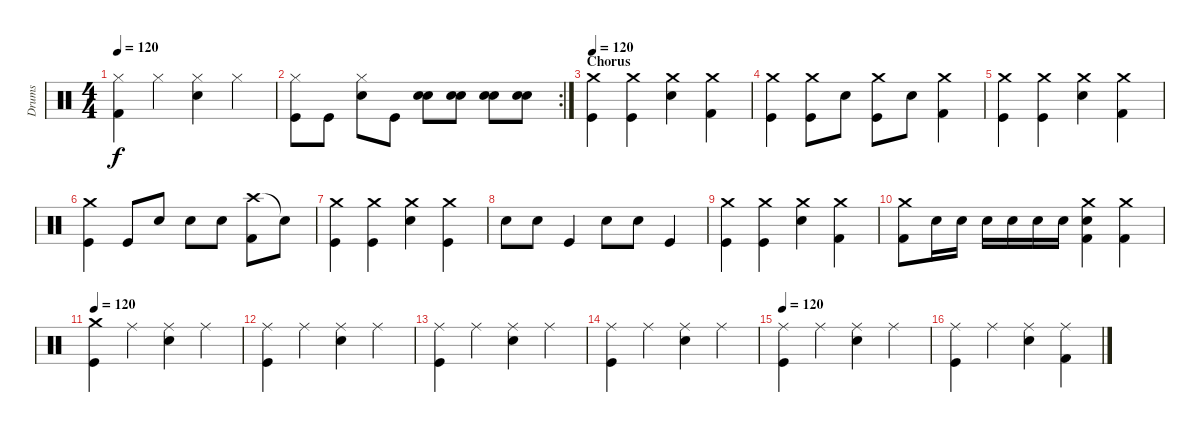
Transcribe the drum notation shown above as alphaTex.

\track ("Drums" "Drums") {instrument percussion}
\staff {score}
\articulation defaults
\ts (4 4)
\tempo 120
\clef neutral
\ks c
("Hi-Hat (closed)" "Kick (hit) 2").4{dy f} "Hi-Hat (closed)".4 ("Hi-Hat (closed)" "Electric Snare (hit)").4 "Hi-Hat (closed)".4 |
\rc 2
("Hi-Hat (closed)" "Kick (hit)").8 "Kick (hit)".8 ("Hi-Hat (closed)" "Electric Snare (hit)").8 "Kick (hit)".8 ("Electric Snare (hit)" "Electric Snare (hit)").8 ("Electric Snare (hit)" "Electric Snare (hit)").8 ("Electric Snare (hit)" "Electric Snare (hit)").8 ("Electric Snare (hit)" "Electric Snare (hit)").8 |
\section ("" "Chorus")
\tempo 120
("Crash medium (hit)" "Kick (hit)").4 ("Crash medium (hit)" "Kick (hit)").4 ("Crash medium (hit)" "Electric Snare (hit)").4 ("Crash medium (hit)" "Kick (hit) 2").4 |
("Crash medium (hit)" "Kick (hit)").4 ("Crash medium (hit)" "Kick (hit)").8 "Electric Snare (hit)".8 ("Crash medium (hit)" "Kick (hit)").8 "Electric Snare (hit)".8 ("Crash medium (hit)" "Kick (hit) 2").4 |
("Crash medium (hit)" "Kick (hit)").4 ("Crash medium (hit)" "Kick (hit)").4 ("Crash medium (hit)" "Electric Snare (hit)").4 ("Crash medium (hit)" "Kick (hit) 2").4 |
("Crash medium (hit)" "Kick (hit)").4 "Kick (hit)".8 "Electric Snare (hit)".8 "Electric Snare (hit)".8 "Electric Snare (hit)".8 ("Crash high (hit)" "Kick (hit) 2").8 "Snare (hit)"{t}.8 |
("Crash medium (hit)" "Kick (hit)").4 ("Crash medium (hit)" "Kick (hit)").4 ("Crash medium (hit)" "Electric Snare (hit)").4 ("Crash medium (hit)" "Kick (hit)").4 |
"Electric Snare (hit)".8 "Electric Snare (hit)".8 "Kick (hit)".4 "Electric Snare (hit)".8 "Electric Snare (hit)".8 "Kick (hit)".4 |
("Crash medium (hit)" "Kick (hit)").4 ("Crash medium (hit)" "Kick (hit)").4 ("Crash medium (hit)" "Electric Snare (hit)").4 ("Crash medium (hit)" "Kick (hit) 2").4 |
("Crash medium (hit)" "Kick (hit) 2").8 "Electric Snare (hit)".16 "Electric Snare (hit)".16 "Electric Snare (hit)".16 "Electric Snare (hit)".16 "Electric Snare (hit)".16 "Electric Snare (hit)".16 ("Crash medium (hit)" "Electric Snare (hit)" "Kick (hit) 2").4 ("Crash medium (hit)" "Kick (hit) 2").4 |
\tempo 120
("Crash medium (hit)" "Kick (hit)").4 "Ride (middle)".4 ("Ride (middle)" "Electric Snare (hit)").4 "Ride (middle)".4 |
("Ride (middle)" "Kick (hit)").4 "Ride (middle)".4 ("Ride (middle)" "Electric Snare (hit)").4 "Ride (middle)".4 |
("Ride (middle)" "Kick (hit)").4 "Ride (middle)".4 ("Ride (middle)" "Electric Snare (hit)").4 "Ride (middle)".4 |
("Ride (middle)" "Kick (hit)").4 "Ride (middle)".4 ("Ride (middle)" "Electric Snare (hit)").4 "Ride (middle)".4 |
\tempo 120
("Ride (middle)" "Kick (hit)").4 "Ride (middle)".4 ("Ride (middle)" "Electric Snare (hit)").4 "Ride (middle)".4 |
("Ride (middle)" "Kick (hit)").4 "Ride (middle)".4 ("Ride (middle)" "Electric Snare (hit)").4 ("Ride (middle)" "Kick (hit) 2").4
